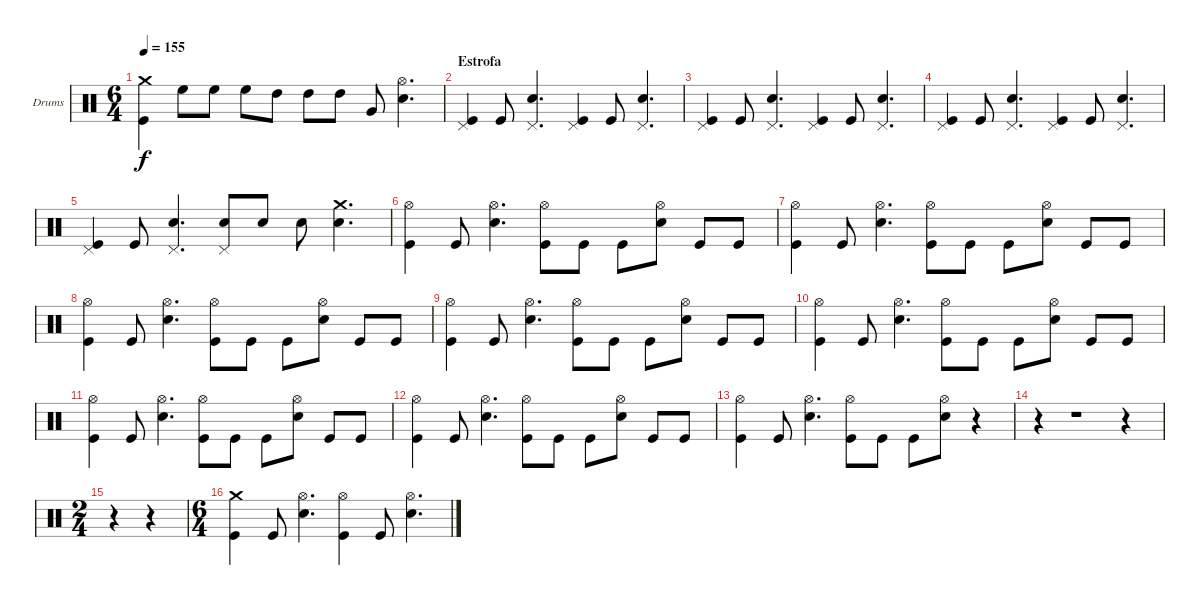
\defaultSystemsLayout 4
\bracketExtendMode groupsimilarinstruments
\firstSystemTrackNameOrientation horizontal
\otherSystemsTrackNameOrientation horizontal
\track ("Drumkit" "Drums") {instrument percussion}
\staff {score}
\articulation defaults
\ts (6 4)
\tempo 155
\clef neutral
\ks c
("Crash medium (hit)" "Kick (hit)").4{dy f} "High Floor Tom (hit)".8 "High Floor Tom (hit)".8 "High Floor Tom (hit)".8 "High Tom (hit)".8 "High Tom (hit)".8 "High Tom (hit)".8 "Very Low Tom (hit)".8 ("Hi-Hat (open)" "Snare (hit) 2").4{d} |
\section ("" "Estrofa")
("Kick (hit)" "Pedal Hi-Hat (hit)").4 "Kick (hit)".8 ("Snare (hit) 2" "Pedal Hi-Hat (hit)").4{d} ("Kick (hit)" "Pedal Hi-Hat (hit)").4 "Kick (hit)".8 ("Snare (hit) 2" "Pedal Hi-Hat (hit)").4{d} |
("Kick (hit)" "Pedal Hi-Hat (hit)").4 "Kick (hit)".8 ("Snare (hit) 2" "Pedal Hi-Hat (hit)").4{d} ("Kick (hit)" "Pedal Hi-Hat (hit)").4 "Kick (hit)".8 ("Snare (hit) 2" "Pedal Hi-Hat (hit)").4{d} |
("Kick (hit)" "Pedal Hi-Hat (hit)").4 "Kick (hit)".8 ("Snare (hit) 2" "Pedal Hi-Hat (hit)").4{d} ("Kick (hit)" "Pedal Hi-Hat (hit)").4 "Kick (hit)".8 ("Snare (hit) 2" "Pedal Hi-Hat (hit)").4{d} |
("Kick (hit)" "Pedal Hi-Hat (hit)").4 "Kick (hit)".8 ("Snare (hit) 2" "Pedal Hi-Hat (hit)").4{d} ("Snare (hit) 2" "Pedal Hi-Hat (hit)").8 "Snare (hit) 2".8 "Snare (hit) 2".8 ("Crash medium (hit)" "Snare (hit) 2").4{d} |
("Hi-Hat (open)" "Kick (hit)").4 "Kick (hit)".8 ("Hi-Hat (open)" "Snare (hit) 2").4{d} ("Hi-Hat (open)" "Kick (hit)").8 "Kick (hit)".8 "Kick (hit)".8 ("Hi-Hat (open)" "Snare (hit) 2").8 "Kick (hit)".8 "Kick (hit)".8 |
("Hi-Hat (open)" "Kick (hit)").4 "Kick (hit)".8 ("Hi-Hat (open)" "Snare (hit) 2").4{d} ("Hi-Hat (open)" "Kick (hit)").8 "Kick (hit)".8 "Kick (hit)".8 ("Hi-Hat (open)" "Snare (hit) 2").8 "Kick (hit)".8 "Kick (hit)".8 |
("Hi-Hat (open)" "Kick (hit)").4 "Kick (hit)".8 ("Hi-Hat (open)" "Snare (hit) 2").4{d} ("Hi-Hat (open)" "Kick (hit)").8 "Kick (hit)".8 "Kick (hit)".8 ("Hi-Hat (open)" "Snare (hit) 2").8 "Kick (hit)".8 "Kick (hit)".8 |
("Hi-Hat (open)" "Kick (hit)").4 "Kick (hit)".8 ("Hi-Hat (open)" "Snare (hit) 2").4{d} ("Hi-Hat (open)" "Kick (hit)").8 "Kick (hit)".8 "Kick (hit)".8 ("Hi-Hat (open)" "Snare (hit) 2").8 "Kick (hit)".8 "Kick (hit)".8 |
("Hi-Hat (open)" "Kick (hit)").4 "Kick (hit)".8 ("Hi-Hat (open)" "Snare (hit) 2").4{d} ("Hi-Hat (open)" "Kick (hit)").8 "Kick (hit)".8 "Kick (hit)".8 ("Hi-Hat (open)" "Snare (hit) 2").8 "Kick (hit)".8 "Kick (hit)".8 |
("Hi-Hat (open)" "Kick (hit)").4 "Kick (hit)".8 ("Hi-Hat (open)" "Snare (hit) 2").4{d} ("Hi-Hat (open)" "Kick (hit)").8 "Kick (hit)".8 "Kick (hit)".8 ("Hi-Hat (open)" "Snare (hit) 2").8 "Kick (hit)".8 "Kick (hit)".8 |
("Hi-Hat (open)" "Kick (hit)").4 "Kick (hit)".8 ("Hi-Hat (open)" "Snare (hit) 2").4{d} ("Hi-Hat (open)" "Kick (hit)").8 "Kick (hit)".8 "Kick (hit)".8 ("Hi-Hat (open)" "Snare (hit) 2").8 "Kick (hit)".8 "Kick (hit)".8 |
("Hi-Hat (open)" "Kick (hit)").4 "Kick (hit)".8 ("Hi-Hat (open)" "Snare (hit) 2").4{d} ("Hi-Hat (open)" "Kick (hit)").8 "Kick (hit)".8 "Kick (hit)".8 ("Hi-Hat (open)" "Snare (hit) 2").8 r.4 |
r.4 r.1 r.4 |
\ts (2 4)
r.4 r.4 |
\ts (6 4)
("Crash medium (hit)" "Kick (hit)").4 "Kick (hit)".8 ("Hi-Hat (open)" "Snare (hit) 2").4{d} ("Hi-Hat (open)" "Kick (hit)").4 "Kick (hit)".8 ("Hi-Hat (open)" "Snare (hit) 2").4{d}
